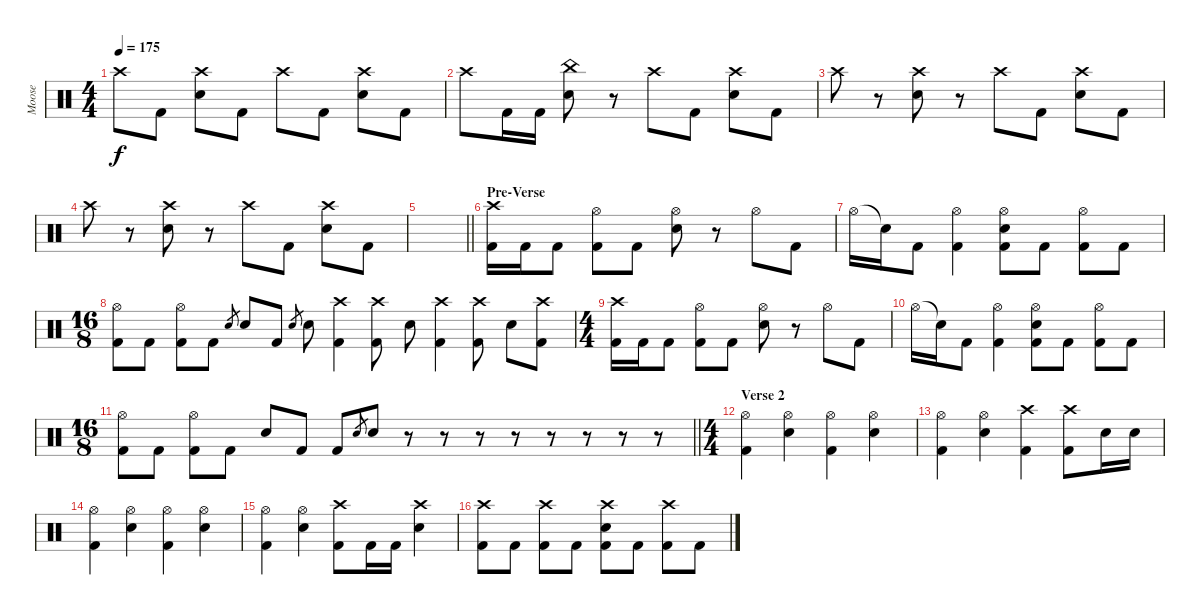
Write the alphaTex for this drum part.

\track ("Moose" "Moose") {instrument percussion}
\staff {score}
\articulation defaults
\ts (4 4)
\tempo 175
\clef neutral
\ks c "Crash high (hit)".8{dy f} "Kick (hit) 2".8
("Crash high (hit)" "Electric Snare (hit)").8 "Kick (hit) 2".8 "Crash high (hit)".8 "Kick (hit) 2".8 ("Crash high (hit)" "Electric Snare (hit)").8 "Kick (hit) 2".8 |
"Crash high (hit)".8 "Kick (hit) 2".16 "Kick (hit) 2".16 ("China (hit)" "Electric Snare (hit)").8 r.8 "Crash high (hit)".8 "Kick (hit) 2".8 ("Crash high (hit)" "Electric Snare (hit)").8 "Kick (hit) 2".8 |
"Crash high (hit)".8 r.8 ("Crash high (hit)" "Electric Snare (hit)").8 r.8 "Crash high (hit)".8 "Kick (hit) 2".8 ("Crash high (hit)" "Electric Snare (hit)").8 "Kick (hit) 2".8 |
"Crash high (hit)".8 r.8 ("Crash high (hit)" "Electric Snare (hit)").8 r.8 "Crash high (hit)".8 "Kick (hit) 2".8 ("Crash high (hit)" "Electric Snare (hit)").8 "Kick (hit) 2".8 |
\barLineRight lightlight
|
\section ("" "Pre-Verse")
("Crash high (hit)" "Kick (hit) 2").16 "Kick (hit) 2".16 "Kick (hit) 2".8 ("Hi-Hat (open)" "Kick (hit) 2").8 "Kick (hit) 2".8 ("Hi-Hat (open)" "Electric Snare (hit)").8 r.8 "Hi-Hat (open)".8 "Kick (hit) 2".8 |
"Hi-Hat (open)".16 "Snare (hit)"{t}.16 "Kick (hit) 2".8 ("Hi-Hat (open)" "Kick (hit) 2").4 ("Hi-Hat (open)" "Electric Snare (hit)" "Kick (hit) 2").8 "Kick (hit) 2".8 ("Hi-Hat (open)" "Kick (hit) 2").8 "Kick (hit) 2".8 |
\ts (16 8)
("Hi-Hat (open)" "Kick (hit) 2").8 "Kick (hit) 2".8 ("Hi-Hat (open)" "Kick (hit) 2").8 "Kick (hit) 2".8 "Electric Snare (hit)".8{gr} "Electric Snare (hit)".8 "Kick (hit) 2".8 "Electric Snare (hit)".8{gr} "Electric Snare (hit)".8 ("Crash high (hit)" "Kick (hit) 2").4 ("Crash high (hit)" "Kick (hit) 2").8 "Electric Snare (hit)".8 ("Crash high (hit)" "Kick (hit) 2").4 ("Crash high (hit)" "Kick (hit) 2").8 "Electric Snare (hit)".8 ("Crash high (hit)" "Kick (hit) 2").8 |
\ts (4 4)
("Crash high (hit)" "Kick (hit) 2").16 "Kick (hit) 2".16 "Kick (hit) 2".8 ("Hi-Hat (open)" "Kick (hit) 2").8 "Kick (hit) 2".8 ("Hi-Hat (open)" "Electric Snare (hit)").8 r.8 "Hi-Hat (open)".8 "Kick (hit) 2".8 |
"Hi-Hat (open)".16 "Snare (hit)"{t}.16 "Kick (hit) 2".8 ("Hi-Hat (open)" "Kick (hit) 2").4 ("Hi-Hat (open)" "Electric Snare (hit)" "Kick (hit) 2").8 "Kick (hit) 2".8 ("Hi-Hat (open)" "Kick (hit) 2").8 "Kick (hit) 2".8 |
\ts (16 8)
\barLineRight lightlight
("Hi-Hat (open)" "Kick (hit) 2").8 "Kick (hit) 2".8 ("Hi-Hat (open)" "Kick (hit) 2").8 "Kick (hit) 2".8 "Electric Snare (hit)".8 "Kick (hit) 2".8 "Kick (hit) 2".8 "Electric Snare (hit)".8{gr} "Electric Snare (hit)".8 r.8 r.8 r.8 r.8 r.8 r.8 r.8 r.8 |
\ts (4 4)
\section ("" "Verse 2")
("Hi-Hat (open)" "Kick (hit) 2").4 ("Hi-Hat (open)" "Electric Snare (hit)").4 ("Hi-Hat (open)" "Kick (hit) 2").4 ("Hi-Hat (open)" "Electric Snare (hit)").4 |
("Hi-Hat (open)" "Kick (hit) 2").4 ("Hi-Hat (open)" "Electric Snare (hit)").4 ("Crash high (hit)" "Kick (hit) 2").4 ("Crash high (hit)" "Kick (hit) 2").8 "Electric Snare (hit)".16 "Electric Snare (hit)".16 |
("Hi-Hat (open)" "Kick (hit) 2").4 ("Hi-Hat (open)" "Electric Snare (hit)").4 ("Hi-Hat (open)" "Kick (hit) 2").4 ("Hi-Hat (open)" "Electric Snare (hit)").4 |
("Hi-Hat (open)" "Kick (hit) 2").4 ("Hi-Hat (open)" "Electric Snare (hit)").4 ("Crash high (hit)" "Kick (hit) 2").8 "Kick (hit) 2".16 "Kick (hit) 2".16 ("Crash high (hit)" "Electric Snare (hit)").4 |
("Crash high (hit)" "Kick (hit) 2").8 "Kick (hit) 2".8 ("Crash high (hit)" "Kick (hit) 2").8 "Kick (hit) 2".8 ("Crash high (hit)" "Electric Snare (hit)" "Kick (hit) 2").8 "Kick (hit) 2".8 ("Crash high (hit)" "Kick (hit) 2").8 "Kick (hit) 2".8
